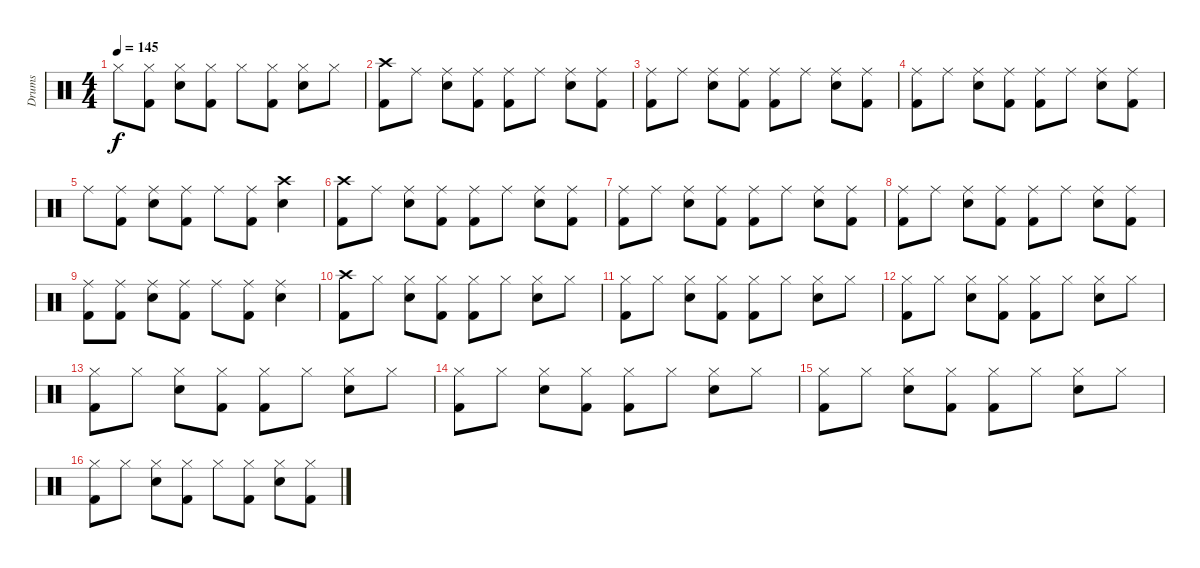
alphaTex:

\track ("Drums" "Drums") {instrument percussion}
\staff {score}
\articulation defaults
\ts (4 4)
\tempo 145
\clef neutral
\ks c "Hi-Hat (closed)".8{dy f}
("Hi-Hat (closed)" "Kick (hit) 2").8 ("Hi-Hat (closed)" "Electric Snare (hit)").8 ("Hi-Hat (closed)" "Kick (hit) 2").8 "Hi-Hat (closed)".8 ("Hi-Hat (closed)" "Kick (hit) 2").8 ("Hi-Hat (closed)" "Electric Snare (hit)").8 "Hi-Hat (closed)".8 |
("Crash high (hit)" "Kick (hit) 2").8 "Ride (middle)".8 ("Ride (middle)" "Electric Snare (hit)").8 ("Ride (middle)" "Kick (hit) 2").8 ("Ride (middle)" "Kick (hit) 2").8 "Ride (middle)".8 ("Ride (middle)" "Electric Snare (hit)").8 ("Ride (middle)" "Kick (hit) 2").8 |
("Ride (middle)" "Kick (hit) 2").8 "Ride (middle)".8 ("Ride (middle)" "Electric Snare (hit)").8 ("Ride (middle)" "Kick (hit) 2").8 ("Ride (middle)" "Kick (hit) 2").8 "Ride (middle)".8 ("Ride (middle)" "Electric Snare (hit)").8 ("Ride (middle)" "Kick (hit) 2").8 |
("Ride (middle)" "Kick (hit) 2").8 "Ride (middle)".8 ("Ride (middle)" "Electric Snare (hit)").8 ("Ride (middle)" "Kick (hit) 2").8 ("Ride (middle)" "Kick (hit) 2").8 "Ride (middle)".8 ("Ride (middle)" "Electric Snare (hit)").8 ("Ride (middle)" "Kick (hit) 2").8 |
"Ride (middle)".8 ("Ride (middle)" "Kick (hit) 2").8 ("Ride (middle)" "Electric Snare (hit)").8 ("Ride (middle)" "Kick (hit) 2").8 "Ride (middle)".8 ("Ride (middle)" "Kick (hit) 2").8 ("Crash high (hit)" "Electric Snare (hit)").4 |
("Crash high (hit)" "Kick (hit) 2").8 "Ride (middle)".8 ("Ride (middle)" "Electric Snare (hit)").8 ("Ride (middle)" "Kick (hit) 2").8 ("Ride (middle)" "Kick (hit) 2").8 "Ride (middle)".8 ("Ride (middle)" "Electric Snare (hit)").8 ("Ride (middle)" "Kick (hit) 2").8 |
("Ride (middle)" "Kick (hit) 2").8 "Ride (middle)".8 ("Ride (middle)" "Electric Snare (hit)").8 ("Ride (middle)" "Kick (hit) 2").8 ("Ride (middle)" "Kick (hit) 2").8 "Ride (middle)".8 ("Ride (middle)" "Electric Snare (hit)").8 ("Ride (middle)" "Kick (hit) 2").8 |
("Ride (middle)" "Kick (hit) 2").8 "Ride (middle)".8 ("Ride (middle)" "Electric Snare (hit)").8 ("Ride (middle)" "Kick (hit) 2").8 ("Ride (middle)" "Kick (hit) 2").8 "Ride (middle)".8 ("Ride (middle)" "Electric Snare (hit)").8 ("Ride (middle)" "Kick (hit) 2").8 |
("Ride (middle)" "Kick (hit) 2").8 ("Ride (middle)" "Kick (hit) 2").8 ("Ride (middle)" "Electric Snare (hit)").8 ("Ride (middle)" "Kick (hit) 2").8 "Ride (middle)".8 ("Ride (middle)" "Kick (hit) 2").8 ("Ride (middle)" "Electric Snare (hit)").4 |
("Crash high (hit)" "Kick (hit) 2").8 "Hi-Hat (closed)".8 ("Hi-Hat (closed)" "Electric Snare (hit)").8 ("Hi-Hat (closed)" "Kick (hit) 2").8 ("Hi-Hat (closed)" "Kick (hit) 2").8 "Hi-Hat (closed)".8 ("Hi-Hat (closed)" "Electric Snare (hit)").8 "Hi-Hat (closed)".8 |
("Hi-Hat (closed)" "Kick (hit) 2").8 "Hi-Hat (closed)".8 ("Hi-Hat (closed)" "Electric Snare (hit)").8 ("Hi-Hat (closed)" "Kick (hit) 2").8 ("Hi-Hat (closed)" "Kick (hit) 2").8 "Hi-Hat (closed)".8 ("Hi-Hat (closed)" "Electric Snare (hit)").8 "Hi-Hat (closed)".8 |
("Hi-Hat (closed)" "Kick (hit) 2").8 "Hi-Hat (closed)".8 ("Hi-Hat (closed)" "Electric Snare (hit)").8 ("Hi-Hat (closed)" "Kick (hit) 2").8 ("Hi-Hat (closed)" "Kick (hit) 2").8 "Hi-Hat (closed)".8 ("Hi-Hat (closed)" "Electric Snare (hit)").8 "Hi-Hat (closed)".8 |
("Hi-Hat (closed)" "Kick (hit) 2").8 "Hi-Hat (closed)".8 ("Hi-Hat (closed)" "Electric Snare (hit)").8 ("Hi-Hat (closed)" "Kick (hit) 2").8 ("Hi-Hat (closed)" "Kick (hit) 2").8 "Hi-Hat (closed)".8 ("Hi-Hat (closed)" "Electric Snare (hit)").8 "Hi-Hat (closed)".8 |
("Hi-Hat (closed)" "Kick (hit) 2").8 "Hi-Hat (closed)".8 ("Hi-Hat (closed)" "Electric Snare (hit)").8 ("Hi-Hat (closed)" "Kick (hit) 2").8 ("Hi-Hat (closed)" "Kick (hit) 2").8 "Hi-Hat (closed)".8 ("Hi-Hat (closed)" "Electric Snare (hit)").8 "Hi-Hat (closed)".8 |
("Hi-Hat (closed)" "Kick (hit) 2").8 "Hi-Hat (closed)".8 ("Hi-Hat (closed)" "Electric Snare (hit)").8 ("Hi-Hat (closed)" "Kick (hit) 2").8 ("Hi-Hat (closed)" "Kick (hit) 2").8 "Hi-Hat (closed)".8 ("Hi-Hat (closed)" "Electric Snare (hit)").8 "Hi-Hat (closed)".8 |
("Hi-Hat (closed)" "Kick (hit) 2").8 "Hi-Hat (closed)".8 ("Hi-Hat (closed)" "Electric Snare (hit)").8 ("Hi-Hat (closed)" "Kick (hit) 2").8 "Hi-Hat (closed)".8 ("Hi-Hat (closed)" "Kick (hit) 2").8 ("Hi-Hat (closed)" "Electric Snare (hit)").8 ("Hi-Hat (closed)" "Kick (hit) 2").8
